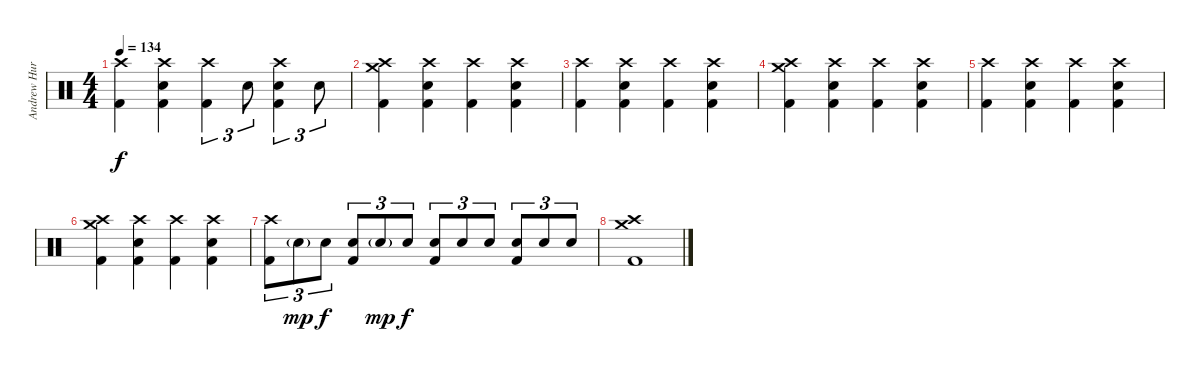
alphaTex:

\track ("Andrew Hurley (Drums)" "Andrew Hur") {instrument percussion}
\staff {score}
\articulation defaults
\ts (4 4)
\tempo 134
\clef neutral
\ks c
("Crash high (hit)" "Kick (hit) 2").4{dy f} ("Crash high (hit)" "Snare (hit) 2" "Kick (hit) 2").4 ("Crash high (hit)" "Kick (hit) 2").4{tu (3 2)} "Snare (hit) 2".8{tu (3 2)} ("Crash high (hit)" "Snare (hit) 2" "Kick (hit) 2").4{tu (3 2)} "Snare (hit) 2".8{tu (3 2)} |
("Crash high (hit)" "Crash medium (hit)" "Kick (hit) 2").4 ("Crash high (hit)" "Snare (hit) 2" "Kick (hit) 2").4 ("Crash high (hit)" "Kick (hit) 2").4 ("Crash high (hit)" "Snare (hit) 2" "Kick (hit) 2").4 |
("Crash high (hit)" "Kick (hit) 2").4 ("Crash high (hit)" "Snare (hit) 2" "Kick (hit) 2").4 ("Crash high (hit)" "Kick (hit) 2").4 ("Crash high (hit)" "Snare (hit) 2" "Kick (hit) 2").4 |
("Crash high (hit)" "Crash medium (hit)" "Kick (hit) 2").4 ("Crash high (hit)" "Snare (hit) 2" "Kick (hit) 2").4 ("Crash high (hit)" "Kick (hit) 2").4 ("Crash high (hit)" "Snare (hit) 2" "Kick (hit) 2").4 |
("Crash high (hit)" "Kick (hit) 2").4 ("Crash high (hit)" "Snare (hit) 2" "Kick (hit) 2").4 ("Crash high (hit)" "Kick (hit) 2").4 ("Crash high (hit)" "Snare (hit) 2" "Kick (hit) 2").4 |
("Crash high (hit)" "Crash medium (hit)" "Kick (hit) 2").4 ("Crash high (hit)" "Snare (hit) 2" "Kick (hit) 2").4 ("Crash high (hit)" "Kick (hit) 2").4 ("Crash high (hit)" "Snare (hit) 2" "Kick (hit) 2").4 |
("Crash high (hit)" "Kick (hit) 2").8{tu (3 2)} "Snare (hit) 2"{g}.8{tu (3 2) dy mp} "Snare (hit) 2".8{tu (3 2) dy f} ("Snare (hit) 2" "Kick (hit) 2").8{tu (3 2)} "Snare (hit) 2"{g}.8{tu (3 2) dy mp} "Snare (hit) 2".8{tu (3 2) dy f} ("Snare (hit) 2" "Kick (hit) 2").8{tu (3 2)} "Snare (hit) 2".8{tu (3 2)} "Snare (hit) 2".8{tu (3 2)} ("Snare (hit) 2" "Kick (hit) 2").8{tu (3 2)} "Snare (hit) 2".8{tu (3 2)} "Snare (hit) 2".8{tu (3 2)} |
("Crash high (hit)" "Crash medium (hit)" "Kick (hit) 2").1
